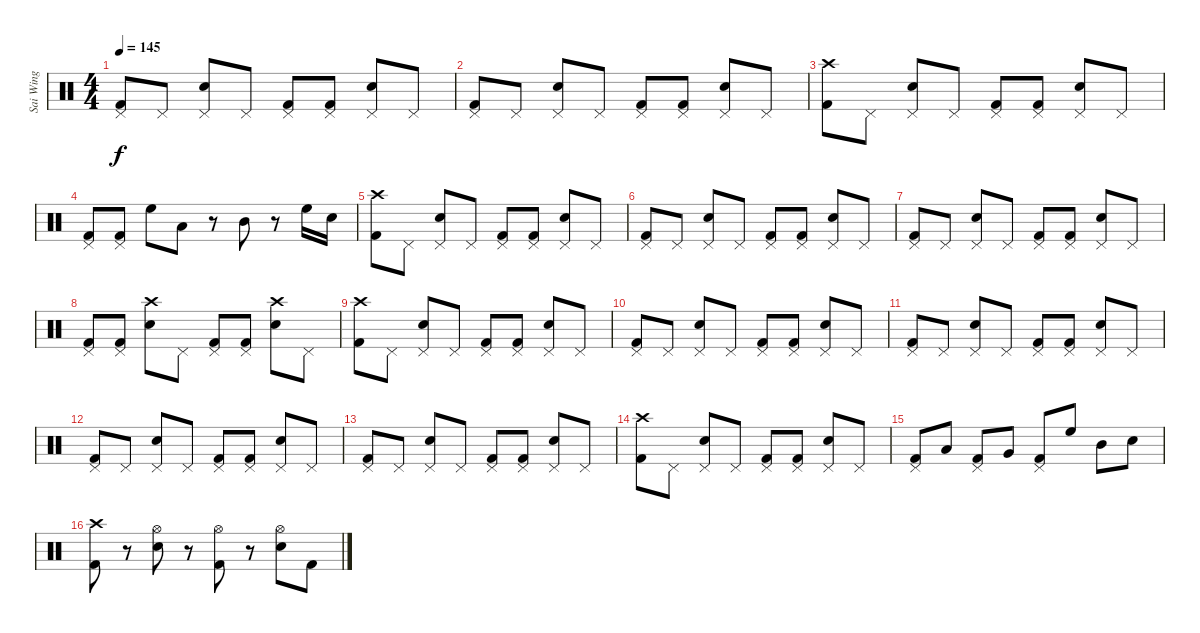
\track ("Sai Wing" "Sai Wing") {instrument percussion}
\staff {score}
\articulation defaults
\ts (4 4)
\tempo 145
\clef neutral
\ks c
("Pedal Hi-Hat (hit)" "Kick (hit) 2").8{dy f} "Pedal Hi-Hat (hit)".8 ("Pedal Hi-Hat (hit)" "Snare (hit) 2").8 "Pedal Hi-Hat (hit)".8 ("Pedal Hi-Hat (hit)" "Kick (hit) 2").8 ("Pedal Hi-Hat (hit)" "Kick (hit) 2").8 ("Pedal Hi-Hat (hit)" "Snare (hit) 2").8 "Pedal Hi-Hat (hit)".8 |
("Pedal Hi-Hat (hit)" "Kick (hit) 2").8 "Pedal Hi-Hat (hit)".8 ("Pedal Hi-Hat (hit)" "Snare (hit) 2").8 "Pedal Hi-Hat (hit)".8 ("Pedal Hi-Hat (hit)" "Kick (hit) 2").8 ("Pedal Hi-Hat (hit)" "Kick (hit) 2").8 ("Pedal Hi-Hat (hit)" "Snare (hit) 2").8 "Pedal Hi-Hat (hit)".8 |
("Crash high (hit)" "Kick (hit) 2").8 "Pedal Hi-Hat (hit)".8 ("Pedal Hi-Hat (hit)" "Snare (hit) 2").8 "Pedal Hi-Hat (hit)".8 ("Pedal Hi-Hat (hit)" "Kick (hit) 2").8 ("Pedal Hi-Hat (hit)" "Kick (hit) 2").8 ("Pedal Hi-Hat (hit)" "Snare (hit) 2").8 "Pedal Hi-Hat (hit)".8 |
("Pedal Hi-Hat (hit)" "Kick (hit) 2").8 ("Pedal Hi-Hat (hit)" "Kick (hit) 2").8 "High Floor Tom (hit)".8 "Low Tom (hit)".8 r.8 "Mid Tom (hit)".8 r.8 "High Floor Tom (hit)".16 "Snare (hit) 2".16 |
("Crash high (hit)" "Kick (hit) 2").8 "Pedal Hi-Hat (hit)".8 ("Pedal Hi-Hat (hit)" "Snare (hit) 2").8 "Pedal Hi-Hat (hit)".8 ("Pedal Hi-Hat (hit)" "Kick (hit) 2").8 ("Pedal Hi-Hat (hit)" "Kick (hit) 2").8 ("Pedal Hi-Hat (hit)" "Snare (hit) 2").8 "Pedal Hi-Hat (hit)".8 |
("Pedal Hi-Hat (hit)" "Kick (hit) 2").8 "Pedal Hi-Hat (hit)".8 ("Pedal Hi-Hat (hit)" "Snare (hit) 2").8 "Pedal Hi-Hat (hit)".8 ("Pedal Hi-Hat (hit)" "Kick (hit) 2").8 ("Pedal Hi-Hat (hit)" "Kick (hit) 2").8 ("Pedal Hi-Hat (hit)" "Snare (hit) 2").8 "Pedal Hi-Hat (hit)".8 |
("Pedal Hi-Hat (hit)" "Kick (hit) 2").8 "Pedal Hi-Hat (hit)".8 ("Pedal Hi-Hat (hit)" "Snare (hit) 2").8 "Pedal Hi-Hat (hit)".8 ("Pedal Hi-Hat (hit)" "Kick (hit) 2").8 ("Pedal Hi-Hat (hit)" "Kick (hit) 2").8 ("Pedal Hi-Hat (hit)" "Snare (hit) 2").8 "Pedal Hi-Hat (hit)".8 |
("Pedal Hi-Hat (hit)" "Kick (hit) 2").8 ("Pedal Hi-Hat (hit)" "Kick (hit) 2").8 ("Crash high (hit)" "Snare (hit) 2").8 "Pedal Hi-Hat (hit)".8 ("Pedal Hi-Hat (hit)" "Kick (hit) 2").8 ("Pedal Hi-Hat (hit)" "Kick (hit) 2").8 ("Crash high (hit)" "Snare (hit) 2").8 "Pedal Hi-Hat (hit)".8 |
("Crash high (hit)" "Kick (hit) 2").8 "Pedal Hi-Hat (hit)".8 ("Pedal Hi-Hat (hit)" "Snare (hit) 2").8 "Pedal Hi-Hat (hit)".8 ("Pedal Hi-Hat (hit)" "Kick (hit) 2").8 ("Pedal Hi-Hat (hit)" "Kick (hit) 2").8 ("Pedal Hi-Hat (hit)" "Snare (hit) 2").8 "Pedal Hi-Hat (hit)".8 |
("Pedal Hi-Hat (hit)" "Kick (hit) 2").8 "Pedal Hi-Hat (hit)".8 ("Pedal Hi-Hat (hit)" "Snare (hit) 2").8 "Pedal Hi-Hat (hit)".8 ("Pedal Hi-Hat (hit)" "Kick (hit) 2").8 ("Pedal Hi-Hat (hit)" "Kick (hit) 2").8 ("Pedal Hi-Hat (hit)" "Snare (hit) 2").8 "Pedal Hi-Hat (hit)".8 |
("Pedal Hi-Hat (hit)" "Kick (hit) 2").8 "Pedal Hi-Hat (hit)".8 ("Pedal Hi-Hat (hit)" "Snare (hit) 2").8 "Pedal Hi-Hat (hit)".8 ("Pedal Hi-Hat (hit)" "Kick (hit) 2").8 ("Pedal Hi-Hat (hit)" "Kick (hit) 2").8 ("Pedal Hi-Hat (hit)" "Snare (hit) 2").8 "Pedal Hi-Hat (hit)".8 |
("Pedal Hi-Hat (hit)" "Kick (hit) 2").8 "Pedal Hi-Hat (hit)".8 ("Pedal Hi-Hat (hit)" "Snare (hit) 2").8 "Pedal Hi-Hat (hit)".8 ("Pedal Hi-Hat (hit)" "Kick (hit) 2").8 ("Pedal Hi-Hat (hit)" "Kick (hit) 2").8 ("Pedal Hi-Hat (hit)" "Snare (hit) 2").8 "Pedal Hi-Hat (hit)".8 |
("Pedal Hi-Hat (hit)" "Kick (hit) 2").8 "Pedal Hi-Hat (hit)".8 ("Pedal Hi-Hat (hit)" "Snare (hit) 2").8 "Pedal Hi-Hat (hit)".8 ("Pedal Hi-Hat (hit)" "Kick (hit) 2").8 ("Pedal Hi-Hat (hit)" "Kick (hit) 2").8 ("Pedal Hi-Hat (hit)" "Snare (hit) 2").8 "Pedal Hi-Hat (hit)".8 |
("Crash high (hit)" "Kick (hit) 2").8 "Pedal Hi-Hat (hit)".8 ("Pedal Hi-Hat (hit)" "Snare (hit) 2").8 "Pedal Hi-Hat (hit)".8 ("Pedal Hi-Hat (hit)" "Kick (hit) 2").8 ("Pedal Hi-Hat (hit)" "Kick (hit) 2").8 ("Pedal Hi-Hat (hit)" "Snare (hit) 2").8 "Pedal Hi-Hat (hit)".8 |
("Pedal Hi-Hat (hit)" "Kick (hit) 2").8 "Low Tom (hit)".8 ("Pedal Hi-Hat (hit)" "Kick (hit) 2").8 "Very Low Tom (hit)".8 ("Pedal Hi-Hat (hit)" "Kick (hit) 2").8 "High Floor Tom (hit)".8 "Mid Tom (hit)".8 "Snare (hit) 2".8 |
("Crash high (hit)" "Kick (hit) 2").8 r.8 ("Hi-Hat (open)" "Snare (hit) 2").8 r.8 ("Hi-Hat (open)" "Kick (hit) 2").8 r.8 ("Hi-Hat (open)" "Snare (hit) 2").8 "Kick (hit) 2".8
